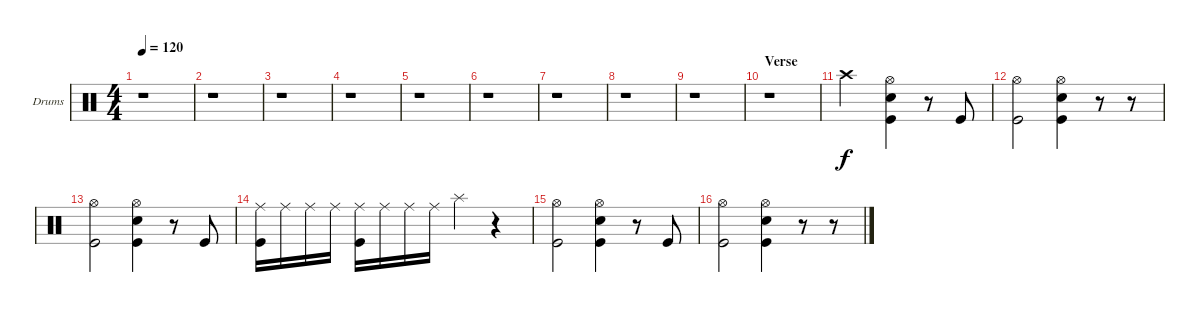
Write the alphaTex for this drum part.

\bracketExtendMode groupsimilarinstruments
\firstSystemTrackNameOrientation horizontal
\otherSystemsTrackNameOrientation horizontal
\track ("Drumkit" "Drums") {instrument percussion}
\staff {score}
\articulation defaults
\ts (4 4)
\tempo 120
\clef neutral
\ks c
r.1{dy f} |
r.1 |
r.1 |
r.1 |
r.1 |
r.1 |
r.1 |
r.1 |
r.1 |
\section ("" "Verse")
r.1 |
"Crash high (hit)".2 ("Hi-Hat (open)" "Snare (hit) 2" "Kick (hit)").4 r.8 "Kick (hit)".8 |
("Hi-Hat (open)" "Kick (hit)").2 ("Hi-Hat (open)" "Snare (hit) 2" "Kick (hit)").4 r.8 r.8 |
("Hi-Hat (open)" "Kick (hit)").2 ("Hi-Hat (open)" "Snare (hit) 2" "Kick (hit)").4 r.8 "Kick (hit)".8 |
("Ride (middle)" "Kick (hit)").16 "Ride (middle)".16 "Ride (middle)".16 "Ride (middle)".16 ("Ride (middle)" "Kick (hit)").16 "Ride (middle)".16 "Ride (middle)".16 "Ride (middle)".16 "Splash (hit)".4 r.4 |
("Hi-Hat (open)" "Kick (hit)").2 ("Hi-Hat (open)" "Snare (hit) 2" "Kick (hit)").4 r.8 "Kick (hit)".8 |
("Hi-Hat (open)" "Kick (hit)").2 ("Hi-Hat (open)" "Snare (hit) 2" "Kick (hit)").4 r.8 r.8
